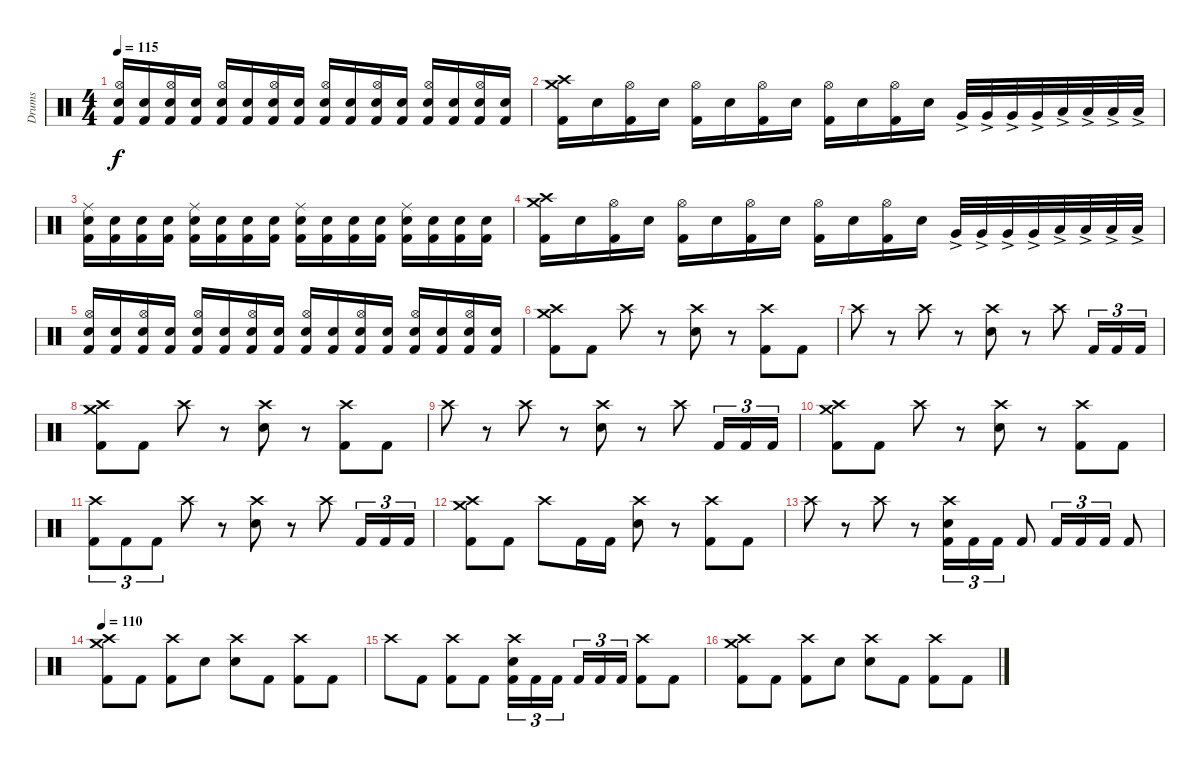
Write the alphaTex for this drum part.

\track ("Drums" "Drums") {instrument percussion}
\staff {score}
\articulation defaults
\ts (4 4)
\tempo 115
\clef neutral
\ks c
("Electric Snare (hit)" "Hi-Hat (open)" "Kick (hit) 2").16{dy f} ("Electric Snare (hit)" "Kick (hit) 2").16 ("Electric Snare (hit)" "Hi-Hat (open)" "Kick (hit) 2").16 ("Electric Snare (hit)" "Kick (hit) 2").16 ("Electric Snare (hit)" "Hi-Hat (open)" "Kick (hit) 2").16 ("Electric Snare (hit)" "Kick (hit) 2").16 ("Electric Snare (hit)" "Hi-Hat (open)" "Kick (hit) 2").16 ("Electric Snare (hit)" "Kick (hit) 2").16 ("Electric Snare (hit)" "Hi-Hat (open)" "Kick (hit) 2").16 ("Electric Snare (hit)" "Kick (hit) 2").16 ("Electric Snare (hit)" "Hi-Hat (open)" "Kick (hit) 2").16 ("Electric Snare (hit)" "Kick (hit) 2").16 ("Electric Snare (hit)" "Hi-Hat (open)" "Kick (hit) 2").16 ("Electric Snare (hit)" "Kick (hit) 2").16 ("Electric Snare (hit)" "Hi-Hat (open)" "Kick (hit) 2").16 ("Electric Snare (hit)" "Kick (hit) 2").16 |
("Crash medium (hit)" "Crash high (hit)" "Kick (hit) 2").16 "Electric Snare (hit)".16 ("Hi-Hat (open)" "Kick (hit) 2").16 "Electric Snare (hit)".16 ("Hi-Hat (open)" "Kick (hit) 2").16 "Electric Snare (hit)".16 ("Hi-Hat (open)" "Kick (hit) 2").16 "Electric Snare (hit)".16 ("Hi-Hat (open)" "Kick (hit) 2").16 "Electric Snare (hit)".16 ("Hi-Hat (open)" "Kick (hit) 2").16 "Electric Snare (hit)".16 "Very Low Tom (hit)"{ac}.32 "Very Low Tom (hit)"{ac}.32 "Very Low Tom (hit)"{ac}.32 "Very Low Tom (hit)"{ac}.32 "Low Floor Tom (hit)"{ac}.32 "Low Floor Tom (hit)"{ac}.32 "Low Floor Tom (hit)"{ac}.32 "Low Floor Tom (hit)"{ac}.32 |
("Electric Snare (hit)" "Ride (middle)" "Kick (hit) 2").16 ("Electric Snare (hit)" "Kick (hit) 2").16 ("Electric Snare (hit)" "Kick (hit) 2").16 ("Electric Snare (hit)" "Kick (hit) 2").16 ("Electric Snare (hit)" "Ride (middle)" "Kick (hit) 2").16 ("Electric Snare (hit)" "Kick (hit) 2").16 ("Electric Snare (hit)" "Kick (hit) 2").16 ("Electric Snare (hit)" "Kick (hit) 2").16 ("Electric Snare (hit)" "Ride (middle)" "Kick (hit) 2").16 ("Electric Snare (hit)" "Kick (hit) 2").16 ("Electric Snare (hit)" "Kick (hit) 2").16 ("Electric Snare (hit)" "Kick (hit) 2").16 ("Electric Snare (hit)" "Ride (middle)" "Kick (hit) 2").16 ("Electric Snare (hit)" "Kick (hit) 2").16 ("Electric Snare (hit)" "Kick (hit) 2").16 ("Electric Snare (hit)" "Kick (hit) 2").16 |
("Crash medium (hit)" "Crash high (hit)" "Kick (hit) 2").16 "Electric Snare (hit)".16 ("Hi-Hat (open)" "Kick (hit) 2").16 "Electric Snare (hit)".16 ("Hi-Hat (open)" "Kick (hit) 2").16 "Electric Snare (hit)".16 ("Hi-Hat (open)" "Kick (hit) 2").16 "Electric Snare (hit)".16 ("Hi-Hat (open)" "Kick (hit) 2").16 "Electric Snare (hit)".16 ("Hi-Hat (open)" "Kick (hit) 2").16 "Electric Snare (hit)".16 "Very Low Tom (hit)"{ac}.32 "Very Low Tom (hit)"{ac}.32 "Very Low Tom (hit)"{ac}.32 "Very Low Tom (hit)"{ac}.32 "Low Floor Tom (hit)"{ac}.32 "Low Floor Tom (hit)"{ac}.32 "Low Floor Tom (hit)"{ac}.32 "Low Floor Tom (hit)"{ac}.32 |
("Electric Snare (hit)" "Hi-Hat (open)" "Kick (hit) 2").16 ("Electric Snare (hit)" "Kick (hit) 2").16 ("Electric Snare (hit)" "Hi-Hat (open)" "Kick (hit) 2").16 ("Electric Snare (hit)" "Kick (hit) 2").16 ("Electric Snare (hit)" "Hi-Hat (open)" "Kick (hit) 2").16 ("Electric Snare (hit)" "Kick (hit) 2").16 ("Electric Snare (hit)" "Hi-Hat (open)" "Kick (hit) 2").16 ("Electric Snare (hit)" "Kick (hit) 2").16 ("Electric Snare (hit)" "Hi-Hat (open)" "Kick (hit) 2").16 ("Electric Snare (hit)" "Kick (hit) 2").16 ("Electric Snare (hit)" "Hi-Hat (open)" "Kick (hit) 2").16 ("Electric Snare (hit)" "Kick (hit) 2").16 ("Electric Snare (hit)" "Hi-Hat (open)" "Kick (hit) 2").16 ("Electric Snare (hit)" "Kick (hit) 2").16 ("Electric Snare (hit)" "Hi-Hat (open)" "Kick (hit) 2").16 ("Electric Snare (hit)" "Kick (hit) 2").16 |
("Crash medium (hit)" "Crash high (hit)" "Kick (hit) 2").8 "Kick (hit) 2".8 "Crash high (hit)".8 r.8 ("Crash high (hit)" "Electric Snare (hit)").8 r.8 ("Crash high (hit)" "Kick (hit) 2").8 "Kick (hit) 2".8 |
"Crash high (hit)".8 r.8 "Crash high (hit)".8 r.8 ("Crash high (hit)" "Electric Snare (hit)").8 r.8 "Crash high (hit)".8 "Kick (hit) 2".16{tu (3 2)} "Kick (hit) 2".16{tu (3 2)} "Kick (hit) 2".16{tu (3 2)} |
("Crash medium (hit)" "Crash high (hit)" "Kick (hit) 2").8 "Kick (hit) 2".8 "Crash high (hit)".8 r.8 ("Crash high (hit)" "Electric Snare (hit)").8 r.8 ("Crash high (hit)" "Kick (hit) 2").8 "Kick (hit) 2".8 |
"Crash high (hit)".8 r.8 "Crash high (hit)".8 r.8 ("Crash high (hit)" "Electric Snare (hit)").8 r.8 "Crash high (hit)".8 "Kick (hit) 2".16{tu (3 2)} "Kick (hit) 2".16{tu (3 2)} "Kick (hit) 2".16{tu (3 2)} |
("Crash medium (hit)" "Crash high (hit)" "Kick (hit) 2").8 "Kick (hit) 2".8 "Crash high (hit)".8 r.8 ("Crash high (hit)" "Electric Snare (hit)").8 r.8 ("Crash high (hit)" "Kick (hit) 2").8 "Kick (hit) 2".8 |
("Crash high (hit)" "Kick (hit) 2").8{tu (3 2)} "Kick (hit) 2".8{tu (3 2)} "Kick (hit) 2".8{tu (3 2)} "Crash high (hit)".8 r.8 ("Crash high (hit)" "Electric Snare (hit)").8 r.8 "Crash high (hit)".8 "Kick (hit) 2".16{tu (3 2)} "Kick (hit) 2".16{tu (3 2)} "Kick (hit) 2".16{tu (3 2)} |
("Crash medium (hit)" "Crash high (hit)" "Kick (hit) 2").8 "Kick (hit) 2".8 "Crash high (hit)".8 "Kick (hit) 2".16 "Kick (hit) 2".16 ("Crash high (hit)" "Electric Snare (hit)").8 r.8 ("Crash high (hit)" "Kick (hit) 2").8 "Kick (hit) 2".8 |
"Crash high (hit)".8 r.8 "Crash high (hit)".8 r.8 ("Crash high (hit)" "Electric Snare (hit)" "Kick (hit) 2").16{tu (3 2)} "Kick (hit) 2".16{tu (3 2)} "Kick (hit) 2".16{tu (3 2)} "Kick (hit) 2".8 "Kick (hit) 2".16{tu (3 2)} "Kick (hit) 2".16{tu (3 2)} "Kick (hit) 2".16{tu (3 2)} "Kick (hit) 2".8 |
\tempo 110
("Crash medium (hit)" "Crash high (hit)" "Kick (hit) 2").8 "Kick (hit) 2".8 ("Crash high (hit)" "Kick (hit) 2").8 "Electric Snare (hit)".8 ("Crash high (hit)" "Electric Snare (hit)").8 "Kick (hit) 2".8 ("Crash high (hit)" "Kick (hit) 2").8 "Kick (hit) 2".8 |
"Crash high (hit)".8 "Kick (hit) 2".8 ("Crash high (hit)" "Kick (hit) 2").8 "Kick (hit) 2".8 ("Crash high (hit)" "Electric Snare (hit)" "Kick (hit) 2").16{tu (3 2)} "Kick (hit) 2".16{tu (3 2)} "Kick (hit) 2".16{tu (3 2)} "Kick (hit) 2".16{tu (3 2)} "Kick (hit) 2".16{tu (3 2)} "Kick (hit) 2".16{tu (3 2)} ("Crash high (hit)" "Kick (hit) 2").8 "Kick (hit) 2".8 |
("Crash medium (hit)" "Crash high (hit)" "Kick (hit) 2").8 "Kick (hit) 2".8 ("Crash high (hit)" "Kick (hit) 2").8 "Electric Snare (hit)".8 ("Crash high (hit)" "Electric Snare (hit)").8 "Kick (hit) 2".8 ("Crash high (hit)" "Kick (hit) 2").8 "Kick (hit) 2".8
